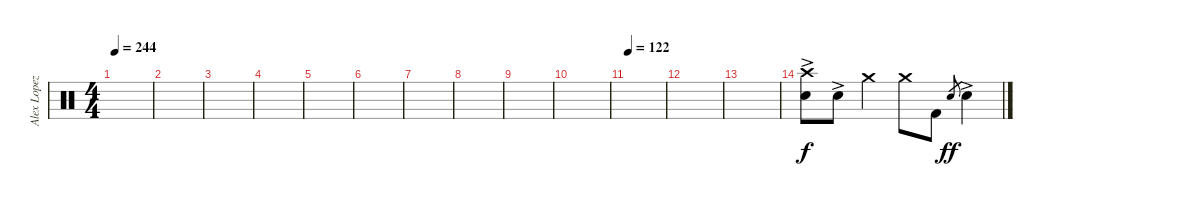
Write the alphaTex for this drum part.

\track ("Alex Lopez" "Alex Lopez") {instrument percussion}
\staff {score}
\articulation defaults
\ts (4 4)
\tempo 244
\clef neutral
\ks c
|
|
|
|
|
|
|
|
|
|
\tempo 122
|
|
|
("Crash high (hit)" "Electric Snare (hit)"{ac}).8{balance 16} "Electric Snare (hit)"{ac}.8 "Crash medium (hit)".4{dy f} "Crash medium (hit)".8 "Kick (hit) 2".8 "Snare (hit) 2".8{gr dy ff} "Snare (hit) 2"{ac}.4
